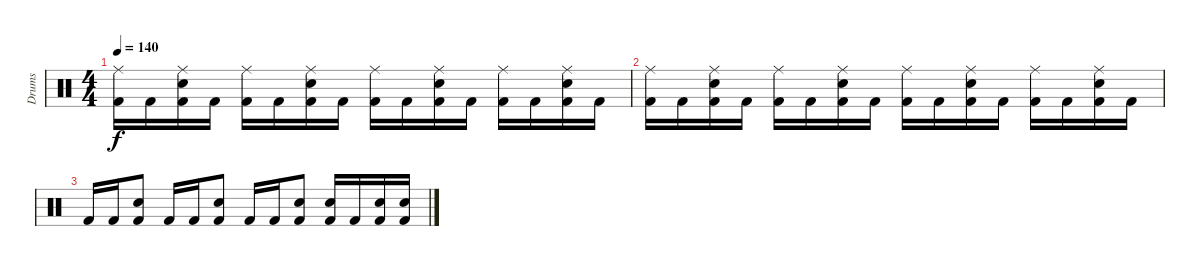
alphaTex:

\track ("Drums" "Drums") {instrument percussion}
\staff {score}
\articulation defaults
\ts (4 4)
\tempo 140
\clef neutral
\ks c
("Ride (middle)" "Kick (hit) 2").16{dy f} "Kick (hit) 2".16 ("Ride (middle)" "Electric Snare (hit)" "Kick (hit) 2").16 "Kick (hit) 2".16 ("Ride (middle)" "Kick (hit) 2").16 "Kick (hit) 2".16 ("Ride (middle)" "Electric Snare (hit)" "Kick (hit) 2").16 "Kick (hit) 2".16 ("Ride (middle)" "Kick (hit) 2").16 "Kick (hit) 2".16 ("Ride (middle)" "Electric Snare (hit)" "Kick (hit) 2").16 "Kick (hit) 2".16 ("Ride (middle)" "Kick (hit) 2").16 "Kick (hit) 2".16 ("Ride (middle)" "Electric Snare (hit)" "Kick (hit) 2").16 "Kick (hit) 2".16 |
("Ride (middle)" "Kick (hit) 2").16 "Kick (hit) 2".16 ("Ride (middle)" "Electric Snare (hit)" "Kick (hit) 2").16 "Kick (hit) 2".16 ("Ride (middle)" "Kick (hit) 2").16 "Kick (hit) 2".16 ("Ride (middle)" "Electric Snare (hit)" "Kick (hit) 2").16 "Kick (hit) 2".16 ("Ride (middle)" "Kick (hit) 2").16 "Kick (hit) 2".16 ("Ride (middle)" "Electric Snare (hit)" "Kick (hit) 2").16 "Kick (hit) 2".16 ("Ride (middle)" "Kick (hit) 2").16 "Kick (hit) 2".16 ("Ride (middle)" "Electric Snare (hit)" "Kick (hit) 2").16 "Kick (hit) 2".16 |
"Kick (hit) 2".16 "Kick (hit) 2".16 ("Electric Snare (hit)" "Kick (hit) 2").8 "Kick (hit) 2".16 "Kick (hit) 2".16 ("Electric Snare (hit)" "Kick (hit) 2").8 "Kick (hit) 2".16 "Kick (hit) 2".16 ("Electric Snare (hit)" "Kick (hit) 2").8 ("Electric Snare (hit)" "Kick (hit) 2").16 "Kick (hit) 2".16 ("Electric Snare (hit)" "Kick (hit) 2").16 ("Electric Snare (hit)" "Kick (hit) 2").16
